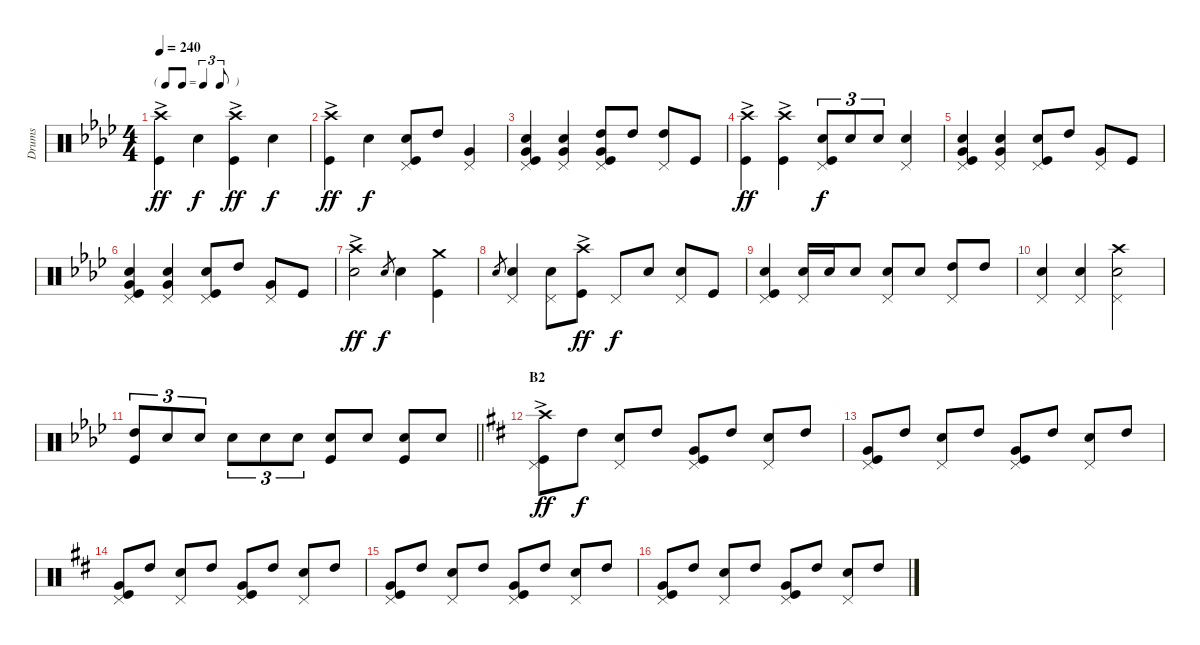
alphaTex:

\track ("Drums" "Drums") {instrument percussion}
\staff {score}
\articulation defaults
\ts (4 4)
\tf triplet8th
\tempo 240
\clef neutral
\ks ab
("Crash high (hit)"{ac} "Kick (hit)").4{dy ff} "Snare (hit) 2".4{dy f} ("Crash high (hit)"{ac} "Kick (hit)").4{dy ff} "Snare (hit) 2".4{dy f} |
("Crash high (hit)"{ac} "Kick (hit)").4{dy ff} "Snare (hit) 2".4{dy f} ("Kick (hit)" "Snare (hit) 2" "Pedal Hi-Hat (hit)").8 "High Tom (hit)".8 ("Very Low Tom (hit)" "Pedal Hi-Hat (hit)").4 |
("Snare (hit) 2" "Very Low Tom (hit)" "Kick (hit)" "Pedal Hi-Hat (hit)").4 ("Snare (hit) 2" "Very Low Tom (hit)" "Pedal Hi-Hat (hit)").4 ("Kick (hit)" "Very Low Tom (hit)" "High Tom (hit)" "Pedal Hi-Hat (hit)").8 "High Tom (hit)".8 ("High Tom (hit)" "Pedal Hi-Hat (hit)").8 "Kick (hit)".8 |
("Crash high (hit)"{ac} "Kick (hit)").4{dy ff} ("Crash high (hit)"{ac} "Kick (hit)").4 ("Pedal Hi-Hat (hit)" "Kick (hit)" "Snare (hit) 2").8{tu (3 2) dy f} "Snare (hit) 2".8{tu (3 2)} "Snare (hit) 2".8{tu (3 2)} ("Snare (hit) 2" "Pedal Hi-Hat (hit)").4 |
("Snare (hit) 2" "Very Low Tom (hit)" "Kick (hit)" "Pedal Hi-Hat (hit)").4 ("Snare (hit) 2" "Very Low Tom (hit)" "Pedal Hi-Hat (hit)").4 ("Pedal Hi-Hat (hit)" "Kick (hit)" "Snare (hit) 2").8 "High Tom (hit)".8 ("Very Low Tom (hit)" "Pedal Hi-Hat (hit)").8 "Kick (hit)".8 |
("Snare (hit) 2" "Very Low Tom (hit)" "Kick (hit)" "Pedal Hi-Hat (hit)").4 ("Snare (hit) 2" "Very Low Tom (hit)" "Pedal Hi-Hat (hit)").4 ("Pedal Hi-Hat (hit)" "Kick (hit)" "Snare (hit) 2").8 "High Tom (hit)".8 ("Very Low Tom (hit)" "Pedal Hi-Hat (hit)").8 "Kick (hit)".8 |
("Snare (hit) 2" "Crash high (hit)"{ac}).2{dy ff} "Snare (hit) 2".8{gr dy f} "Snare (hit) 2".4 ("Crash medium (hit)" "Kick (hit)").4 |
"Snare (hit) 2".8{gr} ("Pedal Hi-Hat (hit)" "Snare (hit) 2").4 ("Snare (hit) 2" "Pedal Hi-Hat (hit)").8 ("Kick (hit)" "Crash high (hit)"{ac}).8{dy ff} "Pedal Hi-Hat (hit)".8{dy f} "Snare (hit) 2".8 ("Snare (hit) 2" "Pedal Hi-Hat (hit)").8 "Kick (hit)".8 |
("Pedal Hi-Hat (hit)" "Kick (hit)" "Snare (hit) 2").4 ("Pedal Hi-Hat (hit)" "Snare (hit) 2").16 "Snare (hit) 2".16 "Snare (hit) 2".8 ("Pedal Hi-Hat (hit)" "Snare (hit) 2").8 "Snare (hit) 2".8 ("Pedal Hi-Hat (hit)" "High Tom (hit)").8 "High Tom (hit)".8 |
("Pedal Hi-Hat (hit)" "Snare (hit) 2").4 ("Snare (hit) 2" "Pedal Hi-Hat (hit)").4 ("Crash high (hit)" "Snare (hit) 2" "Pedal Hi-Hat (hit)").2 |
\barLineRight lightlight
("High Tom (hit)" "Kick (hit)").8{tu (3 2)} "Snare (hit) 2".8{tu (3 2)} "Snare (hit) 2".8{tu (3 2)} "Snare (hit) 2".8{tu (3 2)} "Snare (hit) 2".8{tu (3 2)} "Snare (hit) 2".8{tu (3 2)} ("Snare (hit) 2" "Kick (hit)").8 "Snare (hit) 2".8 ("Snare (hit) 2" "Kick (hit)").8 "Snare (hit) 2".8 |
\section ("" "B2")
\ks d
("Crash high (hit)"{ac} "Kick (hit)" "Pedal Hi-Hat (hit)").8{dy ff} "High Tom (hit)".8{dy f} ("Pedal Hi-Hat (hit)" "Snare (hit) 2").8 "High Tom (hit)".8 ("Pedal Hi-Hat (hit)" "Kick (hit)" "Very Low Tom (hit)").8 "High Tom (hit)".8 ("Pedal Hi-Hat (hit)" "Snare (hit) 2").8 "High Tom (hit)".8 |
("Very Low Tom (hit)" "Kick (hit)" "Pedal Hi-Hat (hit)").8 "High Tom (hit)".8 ("Pedal Hi-Hat (hit)" "Snare (hit) 2").8 "High Tom (hit)".8 ("Pedal Hi-Hat (hit)" "Kick (hit)" "Very Low Tom (hit)").8 "High Tom (hit)".8 ("Pedal Hi-Hat (hit)" "Snare (hit) 2").8 "High Tom (hit)".8 |
("Very Low Tom (hit)" "Kick (hit)" "Pedal Hi-Hat (hit)").8 "High Tom (hit)".8 ("Pedal Hi-Hat (hit)" "Snare (hit) 2").8 "High Tom (hit)".8 ("Pedal Hi-Hat (hit)" "Kick (hit)" "Very Low Tom (hit)").8 "High Tom (hit)".8 ("Pedal Hi-Hat (hit)" "Snare (hit) 2").8 "High Tom (hit)".8 |
("Very Low Tom (hit)" "Kick (hit)" "Pedal Hi-Hat (hit)").8 "High Tom (hit)".8 ("Pedal Hi-Hat (hit)" "Snare (hit) 2").8 "High Tom (hit)".8 ("Pedal Hi-Hat (hit)" "Kick (hit)" "Very Low Tom (hit)").8 "High Tom (hit)".8 ("Pedal Hi-Hat (hit)" "Snare (hit) 2").8 "High Tom (hit)".8 |
("Very Low Tom (hit)" "Kick (hit)" "Pedal Hi-Hat (hit)").8 "High Tom (hit)".8 ("Pedal Hi-Hat (hit)" "Snare (hit) 2").8 "High Tom (hit)".8 ("Pedal Hi-Hat (hit)" "Kick (hit)" "Very Low Tom (hit)").8 "High Tom (hit)".8 ("Pedal Hi-Hat (hit)" "Snare (hit) 2").8 "High Tom (hit)".8
